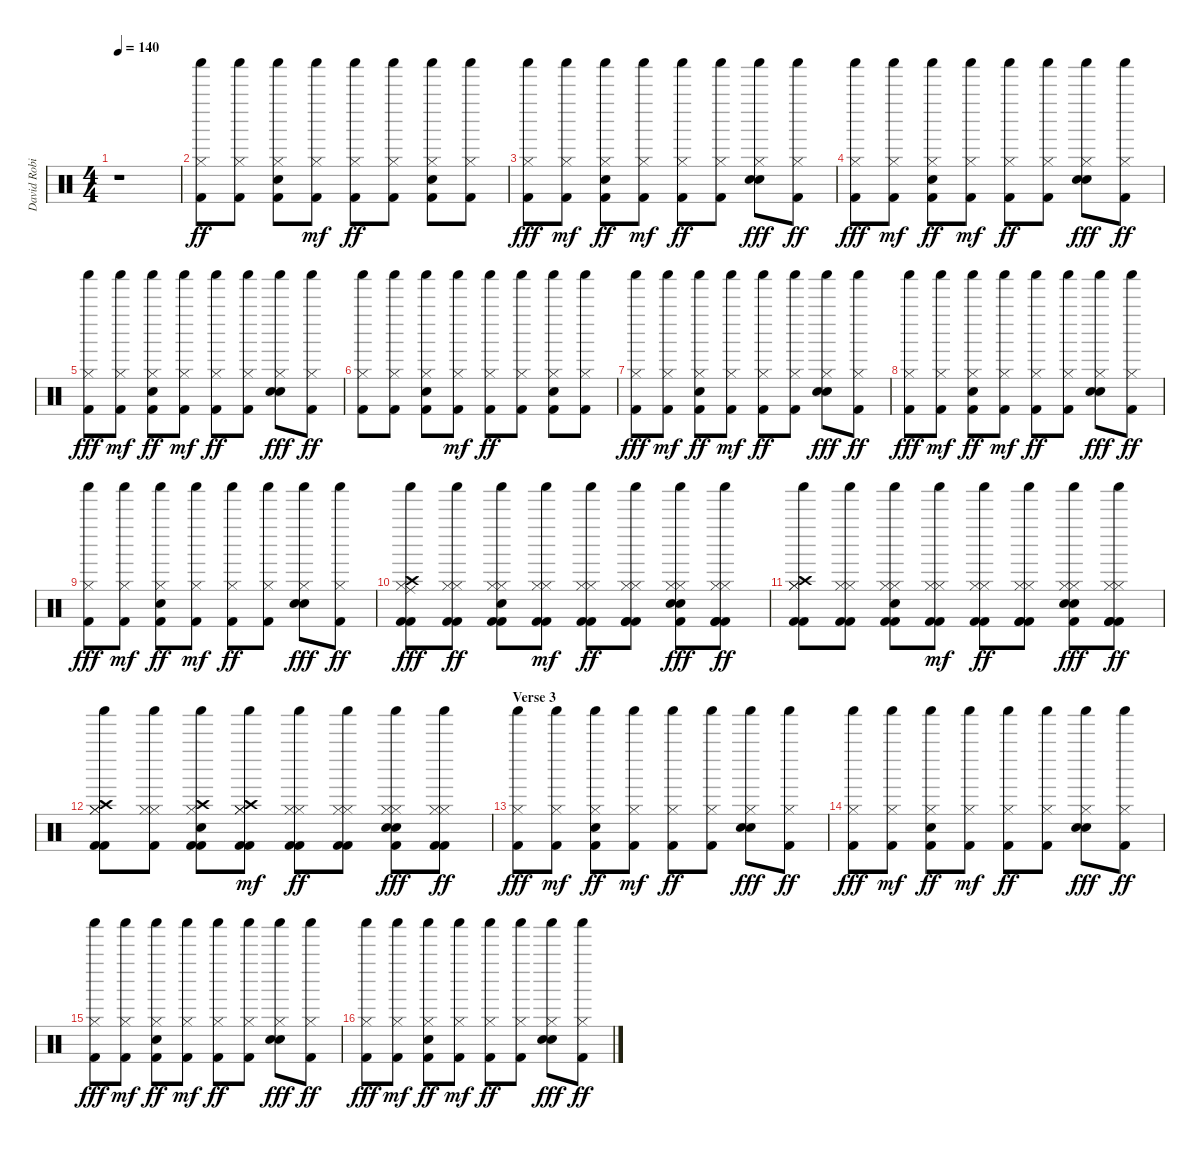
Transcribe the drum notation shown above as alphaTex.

\track ("David Robinson" "David Robi") {instrument percussion}
\staff {score}
\articulation defaults
\ts (4 4)
\tempo 140
\clef neutral
\ks c
r.1{dy ff} |
("Shaker (hit)" "Hi-Hat (closed)" "Kick (hit) 2").8 ("Shaker (hit)" "Hi-Hat (closed)" "Kick (hit) 2").8 ("Shaker (hit)" "Hi-Hat (closed)" "Electric Snare (hit)" "Kick (hit) 2").8 ("Shaker (hit)" "Hi-Hat (closed)" "Kick (hit) 2").8{dy mf} ("Shaker (hit)" "Hi-Hat (closed)" "Kick (hit) 2").8{dy ff} ("Shaker (hit)" "Hi-Hat (closed)" "Kick (hit) 2").8 ("Shaker (hit)" "Hi-Hat (closed)" "Electric Snare (hit)" "Kick (hit) 2").8 ("Shaker (hit)" "Hi-Hat (closed)" "Kick (hit) 2").8 |
("Shaker (hit)" "Hi-Hat (closed)" "Kick (hit) 2").8{dy fff} ("Shaker (hit)" "Hi-Hat (closed)" "Kick (hit) 2").8{dy mf} ("Shaker (hit)" "Hi-Hat (closed)" "Electric Snare (hit)" "Kick (hit) 2").8{dy ff} ("Shaker (hit)" "Hi-Hat (closed)" "Kick (hit) 2").8{dy mf} ("Shaker (hit)" "Hi-Hat (closed)" "Kick (hit) 2").8{dy ff} ("Shaker (hit)" "Hi-Hat (closed)" "Kick (hit) 2").8 ("Shaker (hit)" "Hi-Hat (closed)" "Electric Snare (hit)" "Snare (hit) 2").8{dy fff} ("Shaker (hit)" "Hi-Hat (closed)" "Kick (hit) 2").8{dy ff} |
("Shaker (hit)" "Hi-Hat (closed)" "Kick (hit) 2").8{dy fff} ("Shaker (hit)" "Hi-Hat (closed)" "Kick (hit) 2").8{dy mf} ("Shaker (hit)" "Hi-Hat (closed)" "Electric Snare (hit)" "Kick (hit) 2").8{dy ff} ("Shaker (hit)" "Hi-Hat (closed)" "Kick (hit) 2").8{dy mf} ("Shaker (hit)" "Hi-Hat (closed)" "Kick (hit) 2").8{dy ff} ("Shaker (hit)" "Hi-Hat (closed)" "Kick (hit) 2").8 ("Shaker (hit)" "Hi-Hat (closed)" "Electric Snare (hit)" "Snare (hit) 2").8{dy fff} ("Shaker (hit)" "Hi-Hat (closed)" "Kick (hit) 2").8{dy ff} |
("Shaker (hit)" "Hi-Hat (closed)" "Kick (hit) 2").8{dy fff} ("Shaker (hit)" "Hi-Hat (closed)" "Kick (hit) 2").8{dy mf} ("Shaker (hit)" "Hi-Hat (closed)" "Electric Snare (hit)" "Kick (hit) 2").8{dy ff} ("Shaker (hit)" "Hi-Hat (closed)" "Kick (hit) 2").8{dy mf} ("Shaker (hit)" "Hi-Hat (closed)" "Kick (hit) 2").8{dy ff} ("Shaker (hit)" "Hi-Hat (closed)" "Kick (hit) 2").8 ("Shaker (hit)" "Hi-Hat (closed)" "Electric Snare (hit)" "Snare (hit) 2").8{dy fff} ("Shaker (hit)" "Hi-Hat (closed)" "Kick (hit) 2").8{dy ff} |
("Shaker (hit)" "Hi-Hat (closed)" "Kick (hit) 2").8 ("Shaker (hit)" "Hi-Hat (closed)" "Kick (hit) 2").8 ("Shaker (hit)" "Hi-Hat (closed)" "Electric Snare (hit)" "Kick (hit) 2").8 ("Shaker (hit)" "Hi-Hat (closed)" "Kick (hit) 2").8{dy mf} ("Shaker (hit)" "Hi-Hat (closed)" "Kick (hit) 2").8{dy ff} ("Shaker (hit)" "Hi-Hat (closed)" "Kick (hit) 2").8 ("Shaker (hit)" "Hi-Hat (closed)" "Electric Snare (hit)" "Kick (hit) 2").8 ("Shaker (hit)" "Hi-Hat (closed)" "Kick (hit) 2").8 |
("Shaker (hit)" "Hi-Hat (closed)" "Kick (hit) 2").8{dy fff} ("Shaker (hit)" "Hi-Hat (closed)" "Kick (hit) 2").8{dy mf} ("Shaker (hit)" "Hi-Hat (closed)" "Electric Snare (hit)" "Kick (hit) 2").8{dy ff} ("Shaker (hit)" "Hi-Hat (closed)" "Kick (hit) 2").8{dy mf} ("Shaker (hit)" "Hi-Hat (closed)" "Kick (hit) 2").8{dy ff} ("Shaker (hit)" "Hi-Hat (closed)" "Kick (hit) 2").8 ("Shaker (hit)" "Hi-Hat (closed)" "Electric Snare (hit)" "Snare (hit) 2").8{dy fff} ("Shaker (hit)" "Hi-Hat (closed)" "Kick (hit) 2").8{dy ff} |
("Shaker (hit)" "Hi-Hat (closed)" "Kick (hit) 2").8{dy fff} ("Shaker (hit)" "Hi-Hat (closed)" "Kick (hit) 2").8{dy mf} ("Shaker (hit)" "Hi-Hat (closed)" "Electric Snare (hit)" "Kick (hit) 2").8{dy ff} ("Shaker (hit)" "Hi-Hat (closed)" "Kick (hit) 2").8{dy mf} ("Shaker (hit)" "Hi-Hat (closed)" "Kick (hit) 2").8{dy ff} ("Shaker (hit)" "Hi-Hat (closed)" "Kick (hit) 2").8 ("Shaker (hit)" "Hi-Hat (closed)" "Electric Snare (hit)" "Snare (hit) 2").8{dy fff} ("Shaker (hit)" "Hi-Hat (closed)" "Kick (hit) 2").8{dy ff} |
("Shaker (hit)" "Hi-Hat (closed)" "Kick (hit) 2").8{dy fff} ("Shaker (hit)" "Hi-Hat (closed)" "Kick (hit) 2").8{dy mf} ("Shaker (hit)" "Hi-Hat (closed)" "Electric Snare (hit)" "Kick (hit) 2").8{dy ff} ("Shaker (hit)" "Hi-Hat (closed)" "Kick (hit) 2").8{dy mf} ("Shaker (hit)" "Hi-Hat (closed)" "Kick (hit) 2").8{dy ff} ("Shaker (hit)" "Hi-Hat (closed)" "Kick (hit) 2").8 ("Shaker (hit)" "Hi-Hat (closed)" "Electric Snare (hit)" "Snare (hit) 2").8{dy fff} ("Shaker (hit)" "Hi-Hat (closed)" "Kick (hit) 2").8{dy ff} |
("Shaker (hit)" "Ride (middle)" "Hi-Hat (closed)" "Kick (hit) 2" "Kick (hit) 2" "Crash high (hit)").8{dy fff} ("Shaker (hit)" "Hi-Hat (closed)" "Hi-Hat (closed)" "Kick (hit) 2" "Kick (hit) 2").8{dy ff} ("Shaker (hit)" "Hi-Hat (closed)" "Hi-Hat (closed)" "Kick (hit) 2" "Snare (hit) 2" "Kick (hit) 2").8 ("Shaker (hit)" "Hi-Hat (closed)" "Hi-Hat (closed)" "Kick (hit) 2" "Kick (hit) 2").8{dy mf} ("Shaker (hit)" "Hi-Hat (closed)" "Hi-Hat (closed)" "Kick (hit) 2" "Kick (hit) 2").8{dy ff} ("Shaker (hit)" "Hi-Hat (closed)" "Hi-Hat (closed)" "Kick (hit) 2" "Kick (hit) 2" "Kick (hit) 2").8 ("Shaker (hit)" "Hi-Hat (closed)" "Hi-Hat (closed)" "Snare (hit) 2" "Kick (hit) 2" "Snare (hit) 2").8{dy fff} ("Shaker (hit)" "Hi-Hat (closed)" "Hi-Hat (closed)" "Kick (hit) 2" "Kick (hit) 2" "Kick (hit) 2").8{dy ff} |
("Shaker (hit)" "Crash high (hit)" "Hi-Hat (closed)" "Kick (hit) 2" "Kick (hit) 2" "Hi-Hat (closed)").8 ("Shaker (hit)" "Hi-Hat (closed)" "Hi-Hat (closed)" "Kick (hit) 2" "Kick (hit) 2").8 ("Shaker (hit)" "Hi-Hat (closed)" "Hi-Hat (closed)" "Kick (hit) 2" "Snare (hit) 2" "Kick (hit) 2").8 ("Shaker (hit)" "Hi-Hat (closed)" "Hi-Hat (closed)" "Kick (hit) 2" "Kick (hit) 2").8{dy mf} ("Shaker (hit)" "Hi-Hat (closed)" "Hi-Hat (closed)" "Kick (hit) 2" "Kick (hit) 2").8{dy ff} ("Shaker (hit)" "Hi-Hat (closed)" "Hi-Hat (closed)" "Kick (hit) 2" "Kick (hit) 2" "Kick (hit) 2").8 ("Shaker (hit)" "Hi-Hat (closed)" "Hi-Hat (closed)" "Snare (hit) 2" "Kick (hit) 2" "Snare (hit) 2").8{dy fff} ("Shaker (hit)" "Hi-Hat (closed)" "Hi-Hat (closed)" "Kick (hit) 2" "Kick (hit) 2" "Kick (hit) 2").8{dy ff} |
("Shaker (hit)" "Crash high (hit)" "Hi-Hat (closed)" "Kick (hit) 2" "Kick (hit) 2" "Hi-Hat (closed)").8 ("Shaker (hit)" "Hi-Hat (closed)" "Hi-Hat (closed)" "Kick (hit) 2").8 ("Shaker (hit)" "Crash high (hit)" "Hi-Hat (closed)" "Kick (hit) 2" "Snare (hit) 2" "Kick (hit) 2").8 ("Shaker (hit)" "Crash high (hit)" "Hi-Hat (closed)" "Kick (hit) 2" "Hi-Hat (closed)" "Kick (hit) 2").8{dy mf} ("Shaker (hit)" "Hi-Hat (closed)" "Hi-Hat (closed)" "Kick (hit) 2" "Kick (hit) 2").8{dy ff} ("Shaker (hit)" "Hi-Hat (closed)" "Hi-Hat (closed)" "Kick (hit) 2" "Kick (hit) 2").8 ("Shaker (hit)" "Hi-Hat (closed)" "Hi-Hat (closed)" "Snare (hit) 2" "Kick (hit) 2" "Snare (hit) 2").8{dy fff} ("Shaker (hit)" "Hi-Hat (closed)" "Hi-Hat (closed)" "Kick (hit) 2" "Kick (hit) 2").8{dy ff} |
\section ("" "Verse 3")
("Shaker (hit)" "Hi-Hat (closed)" "Kick (hit) 2").8{dy fff} ("Shaker (hit)" "Hi-Hat (closed)" "Kick (hit) 2").8{dy mf} ("Shaker (hit)" "Hi-Hat (closed)" "Electric Snare (hit)" "Kick (hit) 2").8{dy ff} ("Shaker (hit)" "Hi-Hat (closed)" "Kick (hit) 2").8{dy mf} ("Shaker (hit)" "Hi-Hat (closed)" "Kick (hit) 2").8{dy ff} ("Shaker (hit)" "Hi-Hat (closed)" "Kick (hit) 2").8 ("Shaker (hit)" "Hi-Hat (closed)" "Electric Snare (hit)" "Snare (hit) 2").8{dy fff} ("Shaker (hit)" "Hi-Hat (closed)" "Kick (hit) 2").8{dy ff} |
("Shaker (hit)" "Hi-Hat (closed)" "Kick (hit) 2").8{dy fff} ("Shaker (hit)" "Hi-Hat (closed)" "Kick (hit) 2").8{dy mf} ("Shaker (hit)" "Hi-Hat (closed)" "Electric Snare (hit)" "Kick (hit) 2").8{dy ff} ("Shaker (hit)" "Hi-Hat (closed)" "Kick (hit) 2").8{dy mf} ("Shaker (hit)" "Hi-Hat (closed)" "Kick (hit) 2").8{dy ff} ("Shaker (hit)" "Hi-Hat (closed)" "Kick (hit) 2").8 ("Shaker (hit)" "Hi-Hat (closed)" "Electric Snare (hit)" "Snare (hit) 2").8{dy fff} ("Shaker (hit)" "Hi-Hat (closed)" "Kick (hit) 2").8{dy ff} |
("Shaker (hit)" "Hi-Hat (closed)" "Kick (hit) 2").8{dy fff} ("Shaker (hit)" "Hi-Hat (closed)" "Kick (hit) 2").8{dy mf} ("Shaker (hit)" "Hi-Hat (closed)" "Electric Snare (hit)" "Kick (hit) 2").8{dy ff} ("Shaker (hit)" "Hi-Hat (closed)" "Kick (hit) 2").8{dy mf} ("Shaker (hit)" "Hi-Hat (closed)" "Kick (hit) 2").8{dy ff} ("Shaker (hit)" "Hi-Hat (closed)" "Kick (hit) 2").8 ("Shaker (hit)" "Hi-Hat (closed)" "Electric Snare (hit)" "Snare (hit) 2").8{dy fff} ("Shaker (hit)" "Hi-Hat (closed)" "Kick (hit) 2").8{dy ff} |
("Shaker (hit)" "Hi-Hat (closed)" "Kick (hit) 2").8{dy fff} ("Shaker (hit)" "Hi-Hat (closed)" "Kick (hit) 2").8{dy mf} ("Shaker (hit)" "Hi-Hat (closed)" "Electric Snare (hit)" "Kick (hit) 2").8{dy ff} ("Shaker (hit)" "Hi-Hat (closed)" "Kick (hit) 2").8{dy mf} ("Shaker (hit)" "Hi-Hat (closed)" "Kick (hit) 2").8{dy ff} ("Shaker (hit)" "Hi-Hat (closed)" "Kick (hit) 2").8 ("Shaker (hit)" "Hi-Hat (closed)" "Electric Snare (hit)" "Snare (hit) 2").8{dy fff} ("Shaker (hit)" "Hi-Hat (closed)" "Kick (hit) 2").8{dy ff}
